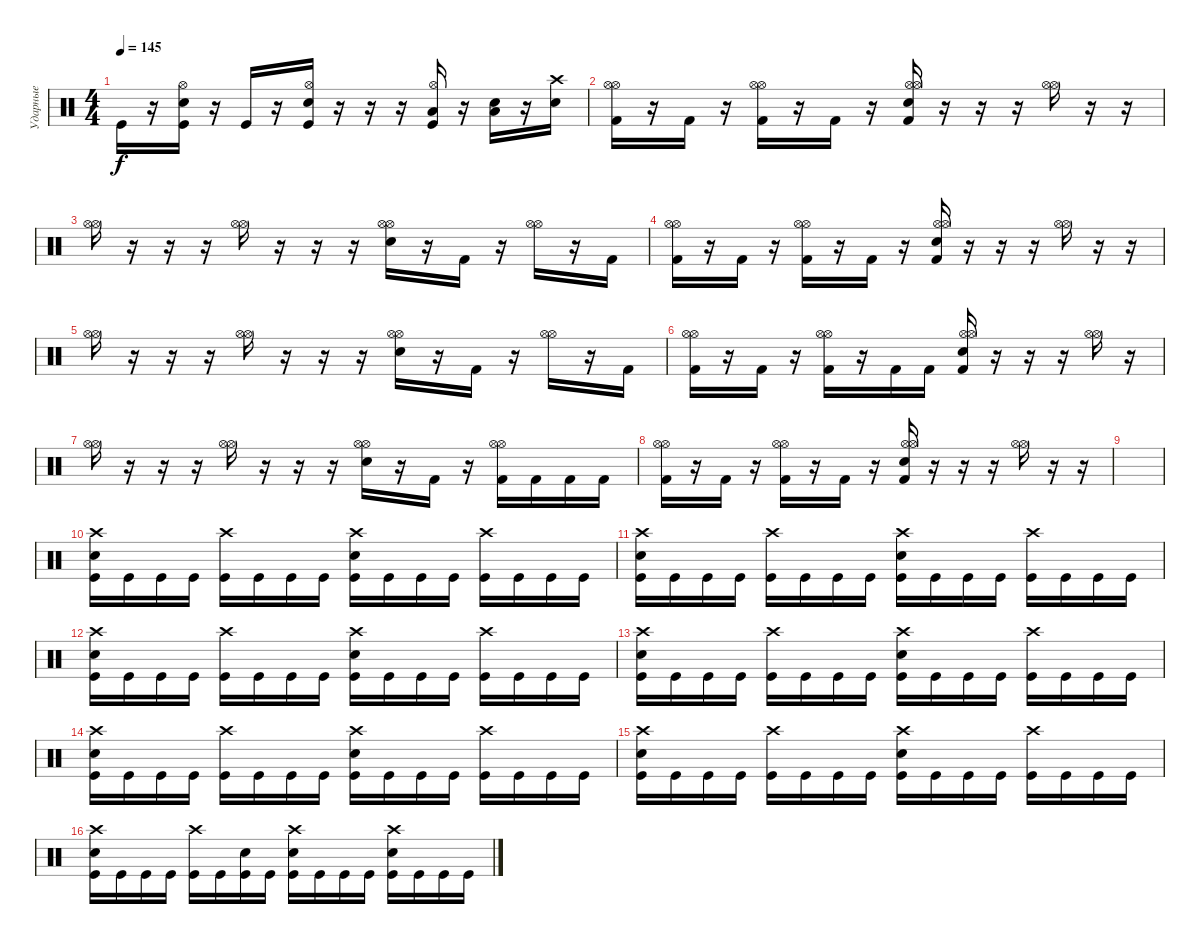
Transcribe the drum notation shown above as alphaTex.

\track ("Ударные" "Ударные") {instrument percussion}
\staff {score}
\articulation defaults
\ts (4 4)
\tempo 145
\clef neutral
\ks c "Kick (hit)".16{dy f}
r.16 ("Kick (hit)" "Electric Snare (hit)" "Hi-Hat (open)").16 r.16 "Kick (hit)".16 r.16 ("Kick (hit)" "Snare (hit) 2" "Hi-Hat (open)").16 r.16 r.16 r.16 ("Kick (hit)" "Low Tom (hit)" "Hi-Hat (open)").16 r.16 ("Electric Snare (hit)" "Low Tom (hit)").16 r.16 ("Electric Snare (hit)" "Crash high (hit)").16 |
("Kick (hit) 2" "Hi-Hat (open)" "Hi-Hat (open)").16 r.16 "Kick (hit) 2".16 r.16 ("Kick (hit) 2" "Hi-Hat (open)" "Hi-Hat (open)").16 r.16 "Kick (hit) 2".16 r.16 ("Kick (hit) 2" "Electric Snare (hit)" "Hi-Hat (open)" "Hi-Hat (open)").16 r.16 r.16 r.16 ("Hi-Hat (open)" "Hi-Hat (open)").16 r.16 r.16 |
("Hi-Hat (open)" "Hi-Hat (open)").16 r.16 r.16 r.16 ("Hi-Hat (open)" "Hi-Hat (open)").16 r.16 r.16 r.16 ("Electric Snare (hit)" "Hi-Hat (open)" "Hi-Hat (open)").16 r.16 "Kick (hit) 2".16 r.16 ("Hi-Hat (open)" "Hi-Hat (open)").16 r.16 "Kick (hit) 2".16 |
("Kick (hit) 2" "Hi-Hat (open)" "Hi-Hat (open)").16 r.16 "Kick (hit) 2".16 r.16 ("Kick (hit) 2" "Hi-Hat (open)" "Hi-Hat (open)").16 r.16 "Kick (hit) 2".16 r.16 ("Kick (hit) 2" "Electric Snare (hit)" "Hi-Hat (open)" "Hi-Hat (open)").16 r.16 r.16 r.16 ("Hi-Hat (open)" "Hi-Hat (open)").16 r.16 r.16 |
("Hi-Hat (open)" "Hi-Hat (open)").16 r.16 r.16 r.16 ("Hi-Hat (open)" "Hi-Hat (open)").16 r.16 r.16 r.16 ("Electric Snare (hit)" "Hi-Hat (open)" "Hi-Hat (open)").16 r.16 "Kick (hit) 2".16 r.16 ("Hi-Hat (open)" "Hi-Hat (open)").16 r.16 "Kick (hit) 2".16 |
("Kick (hit) 2" "Hi-Hat (open)" "Hi-Hat (open)").16 r.16 "Kick (hit) 2".16 r.16 ("Kick (hit) 2" "Hi-Hat (open)" "Hi-Hat (open)").16 r.16 "Kick (hit) 2".16 "Kick (hit) 2".16 ("Kick (hit) 2" "Electric Snare (hit)" "Hi-Hat (open)" "Hi-Hat (open)").16 r.16 r.16 r.16 ("Hi-Hat (open)" "Hi-Hat (open)").16 r.16 |
("Hi-Hat (open)" "Hi-Hat (open)").16 r.16 r.16 r.16 ("Hi-Hat (open)" "Hi-Hat (open)").16 r.16 r.16 r.16 ("Electric Snare (hit)" "Hi-Hat (open)" "Hi-Hat (open)").16 r.16 "Kick (hit) 2".16 r.16 ("Kick (hit) 2" "Hi-Hat (open)" "Hi-Hat (open)").16 "Kick (hit) 2".16 "Kick (hit) 2".16 "Kick (hit) 2".16 |
("Kick (hit) 2" "Hi-Hat (open)" "Hi-Hat (open)").16 r.16 "Kick (hit) 2".16 r.16 ("Kick (hit) 2" "Hi-Hat (open)" "Hi-Hat (open)").16 r.16 "Kick (hit) 2".16 r.16 ("Kick (hit) 2" "Electric Snare (hit)" "Hi-Hat (open)" "Hi-Hat (open)").16 r.16 r.16 r.16 ("Hi-Hat (open)" "Hi-Hat (open)").16 r.16 r.16 |
|
("Kick (hit)" "Electric Snare (hit)" "Crash high (hit)").16 "Kick (hit)".16 "Kick (hit)".16 "Kick (hit)".16 ("Kick (hit)" "Crash high (hit)").16 "Kick (hit)".16 "Kick (hit)".16 "Kick (hit)".16 ("Kick (hit)" "Electric Snare (hit)" "Crash high (hit)").16 "Kick (hit)".16 "Kick (hit)".16 "Kick (hit)".16 ("Kick (hit)" "Crash high (hit)").16 "Kick (hit)".16 "Kick (hit)".16 "Kick (hit)".16 |
("Kick (hit)" "Electric Snare (hit)" "Crash high (hit)").16 "Kick (hit)".16 "Kick (hit)".16 "Kick (hit)".16 ("Kick (hit)" "Crash high (hit)").16 "Kick (hit)".16 "Kick (hit)".16 "Kick (hit)".16 ("Kick (hit)" "Electric Snare (hit)" "Crash high (hit)").16 "Kick (hit)".16 "Kick (hit)".16 "Kick (hit)".16 ("Kick (hit)" "Crash high (hit)").16 "Kick (hit)".16 "Kick (hit)".16 "Kick (hit)".16 |
("Kick (hit)" "Electric Snare (hit)" "Crash high (hit)").16 "Kick (hit)".16 "Kick (hit)".16 "Kick (hit)".16 ("Kick (hit)" "Crash high (hit)").16 "Kick (hit)".16 "Kick (hit)".16 "Kick (hit)".16 ("Kick (hit)" "Electric Snare (hit)" "Crash high (hit)").16 "Kick (hit)".16 "Kick (hit)".16 "Kick (hit)".16 ("Kick (hit)" "Crash high (hit)").16 "Kick (hit)".16 "Kick (hit)".16 "Kick (hit)".16 |
("Kick (hit)" "Electric Snare (hit)" "Crash high (hit)").16 "Kick (hit)".16 "Kick (hit)".16 "Kick (hit)".16 ("Kick (hit)" "Crash high (hit)").16 "Kick (hit)".16 "Kick (hit)".16 "Kick (hit)".16 ("Kick (hit)" "Electric Snare (hit)" "Crash high (hit)").16 "Kick (hit)".16 "Kick (hit)".16 "Kick (hit)".16 ("Kick (hit)" "Crash high (hit)").16 "Kick (hit)".16 "Kick (hit)".16 "Kick (hit)".16 |
("Kick (hit)" "Electric Snare (hit)" "Crash high (hit)").16 "Kick (hit)".16 "Kick (hit)".16 "Kick (hit)".16 ("Kick (hit)" "Crash high (hit)").16 "Kick (hit)".16 "Kick (hit)".16 "Kick (hit)".16 ("Kick (hit)" "Electric Snare (hit)" "Crash high (hit)").16 "Kick (hit)".16 "Kick (hit)".16 "Kick (hit)".16 ("Kick (hit)" "Crash high (hit)").16 "Kick (hit)".16 "Kick (hit)".16 "Kick (hit)".16 |
("Kick (hit)" "Electric Snare (hit)" "Crash high (hit)").16 "Kick (hit)".16 "Kick (hit)".16 "Kick (hit)".16 ("Kick (hit)" "Crash high (hit)").16 "Kick (hit)".16 "Kick (hit)".16 "Kick (hit)".16 ("Kick (hit)" "Electric Snare (hit)" "Crash high (hit)").16 "Kick (hit)".16 "Kick (hit)".16 "Kick (hit)".16 ("Kick (hit)" "Crash high (hit)").16 "Kick (hit)".16 "Kick (hit)".16 "Kick (hit)".16 |
("Kick (hit)" "Electric Snare (hit)" "Crash high (hit)").16 "Kick (hit)".16 "Kick (hit)".16 "Kick (hit)".16 ("Kick (hit)" "Crash high (hit)").16 "Kick (hit)".16 ("Kick (hit)" "Electric Snare (hit)").16 "Kick (hit)".16 ("Kick (hit)" "Snare (hit) 2" "Crash high (hit)").16 "Kick (hit)".16 "Kick (hit)".16 "Kick (hit)".16 ("Kick (hit)" "Electric Snare (hit)" "Crash high (hit)").16 "Kick (hit)".16 "Kick (hit)".16 "Kick (hit)".16
